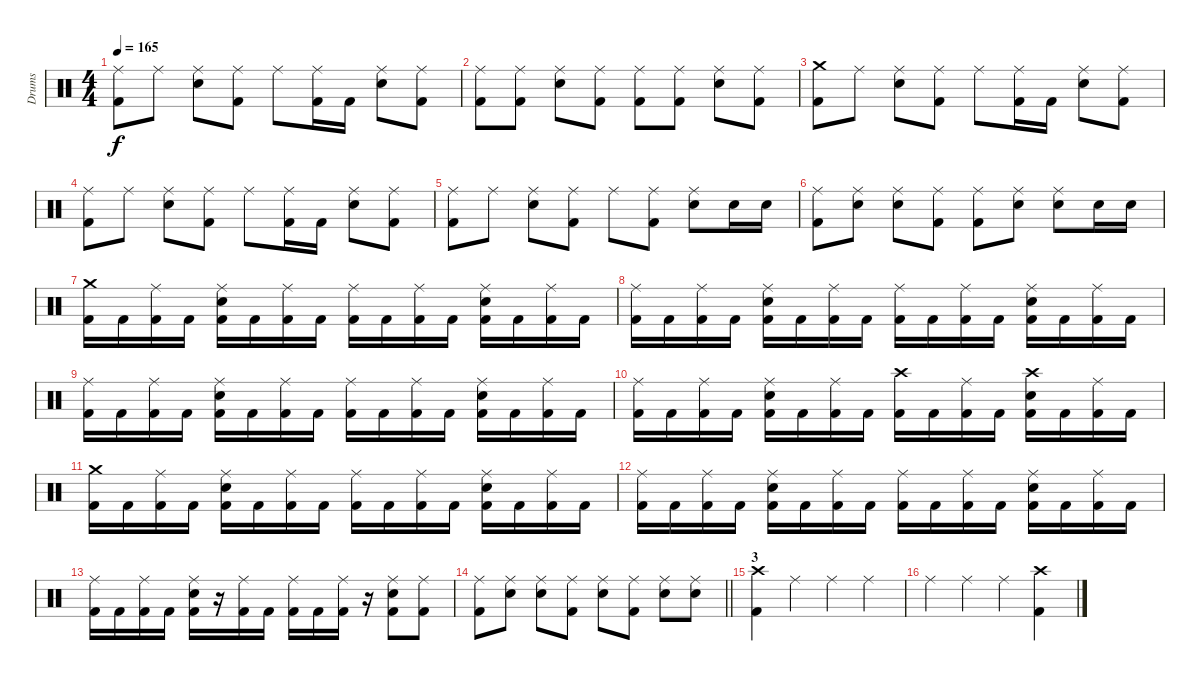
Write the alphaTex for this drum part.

\track ("Drums" "Drums") {instrument percussion}
\staff {score}
\articulation defaults
\ts (4 4)
\tempo 165
\clef neutral
\ks c
("Ride (middle)" "Kick (hit) 2").8{dy f} "Ride (middle)".8 ("Ride (middle)" "Electric Snare (hit)").8 ("Ride (middle)" "Kick (hit) 2").8 "Ride (middle)".8 ("Ride (middle)" "Kick (hit) 2").16 "Kick (hit) 2".16 ("Ride (middle)" "Electric Snare (hit)").8 ("Ride (middle)" "Kick (hit) 2").8 |
("Ride (middle)" "Kick (hit) 2").8 ("Ride (middle)" "Kick (hit) 2").8 ("Ride (middle)" "Electric Snare (hit)").8 ("Ride (middle)" "Kick (hit) 2").8 ("Ride (middle)" "Kick (hit) 2").8 ("Ride (middle)" "Kick (hit) 2").8 ("Ride (middle)" "Electric Snare (hit)").8 ("Ride (middle)" "Kick (hit) 2").8 |
("Crash medium (hit)" "Kick (hit) 2").8 "Ride (middle)".8 ("Ride (middle)" "Electric Snare (hit)").8 ("Ride (middle)" "Kick (hit) 2").8 "Ride (middle)".8 ("Ride (middle)" "Kick (hit) 2").16 "Kick (hit) 2".16 ("Ride (middle)" "Electric Snare (hit)").8 ("Ride (middle)" "Kick (hit) 2").8 |
("Ride (middle)" "Kick (hit) 2").8 "Ride (middle)".8 ("Ride (middle)" "Electric Snare (hit)").8 ("Ride (middle)" "Kick (hit) 2").8 "Ride (middle)".8 ("Ride (middle)" "Kick (hit) 2").16 "Kick (hit) 2".16 ("Ride (middle)" "Electric Snare (hit)").8 ("Ride (middle)" "Kick (hit) 2").8 |
("Ride (middle)" "Kick (hit) 2").8 "Ride (middle)".8 ("Ride (middle)" "Electric Snare (hit)").8 ("Ride (middle)" "Kick (hit) 2").8 "Ride (middle)".8 ("Ride (middle)" "Kick (hit) 2").8 ("Ride (middle)" "Electric Snare (hit)").8 "Electric Snare (hit)".16 "Electric Snare (hit)".16 |
("Ride (middle)" "Kick (hit) 2").8 ("Ride (middle)" "Electric Snare (hit)").8 ("Ride (middle)" "Electric Snare (hit)").8 ("Ride (middle)" "Kick (hit) 2").8 ("Ride (middle)" "Kick (hit) 2").8 ("Ride (middle)" "Electric Snare (hit)").8 ("Ride (middle)" "Electric Snare (hit)").8 "Electric Snare (hit)".16 "Electric Snare (hit)".16 |
("Crash medium (hit)" "Kick (hit) 2").16 "Kick (hit) 2".16 ("Ride (middle)" "Kick (hit) 2").16 "Kick (hit) 2".16 ("Ride (middle)" "Electric Snare (hit)" "Kick (hit) 2").16 "Kick (hit) 2".16 ("Ride (middle)" "Kick (hit) 2").16 "Kick (hit) 2".16 ("Ride (middle)" "Kick (hit) 2").16 "Kick (hit) 2".16 ("Ride (middle)" "Kick (hit) 2").16 "Kick (hit) 2".16 ("Ride (middle)" "Electric Snare (hit)" "Kick (hit) 2").16 "Kick (hit) 2".16 ("Ride (middle)" "Kick (hit) 2").16 "Kick (hit) 2".16 |
("Ride (middle)" "Kick (hit) 2").16 "Kick (hit) 2".16 ("Ride (middle)" "Kick (hit) 2").16 "Kick (hit) 2".16 ("Ride (middle)" "Electric Snare (hit)" "Kick (hit) 2").16 "Kick (hit) 2".16 ("Ride (middle)" "Kick (hit) 2").16 "Kick (hit) 2".16 ("Ride (middle)" "Kick (hit) 2").16 "Kick (hit) 2".16 ("Ride (middle)" "Kick (hit) 2").16 "Kick (hit) 2".16 ("Ride (middle)" "Electric Snare (hit)" "Kick (hit) 2").16 "Kick (hit) 2".16 ("Ride (middle)" "Kick (hit) 2").16 "Kick (hit) 2".16 |
("Ride (middle)" "Kick (hit) 2").16 "Kick (hit) 2".16 ("Ride (middle)" "Kick (hit) 2").16 "Kick (hit) 2".16 ("Ride (middle)" "Electric Snare (hit)" "Kick (hit) 2").16 "Kick (hit) 2".16 ("Ride (middle)" "Kick (hit) 2").16 "Kick (hit) 2".16 ("Ride (middle)" "Kick (hit) 2").16 "Kick (hit) 2".16 ("Ride (middle)" "Kick (hit) 2").16 "Kick (hit) 2".16 ("Ride (middle)" "Electric Snare (hit)" "Kick (hit) 2").16 "Kick (hit) 2".16 ("Ride (middle)" "Kick (hit) 2").16 "Kick (hit) 2".16 |
("Ride (middle)" "Kick (hit) 2").16 "Kick (hit) 2".16 ("Ride (middle)" "Kick (hit) 2").16 "Kick (hit) 2".16 ("Ride (middle)" "Electric Snare (hit)" "Kick (hit) 2").16 "Kick (hit) 2".16 ("Ride (middle)" "Kick (hit) 2").16 "Kick (hit) 2".16 ("Crash high (hit)" "Kick (hit) 2").16 "Kick (hit) 2".16 ("Ride (middle)" "Kick (hit) 2").16 "Kick (hit) 2".16 ("Crash high (hit)" "Electric Snare (hit)" "Kick (hit) 2").16 "Kick (hit) 2".16 ("Ride (middle)" "Kick (hit) 2").16 "Kick (hit) 2".16 |
("Crash medium (hit)" "Kick (hit) 2").16 "Kick (hit) 2".16 ("Ride (middle)" "Kick (hit) 2").16 "Kick (hit) 2".16 ("Ride (middle)" "Electric Snare (hit)" "Kick (hit) 2").16 "Kick (hit) 2".16 ("Ride (middle)" "Kick (hit) 2").16 "Kick (hit) 2".16 ("Ride (middle)" "Kick (hit) 2").16 "Kick (hit) 2".16 ("Ride (middle)" "Kick (hit) 2").16 "Kick (hit) 2".16 ("Ride (middle)" "Electric Snare (hit)" "Kick (hit) 2").16 "Kick (hit) 2".16 ("Ride (middle)" "Kick (hit) 2").16 "Kick (hit) 2".16 |
("Ride (middle)" "Kick (hit) 2").16 "Kick (hit) 2".16 ("Ride (middle)" "Kick (hit) 2").16 "Kick (hit) 2".16 ("Ride (middle)" "Electric Snare (hit)" "Kick (hit) 2").16 "Kick (hit) 2".16 ("Ride (middle)" "Kick (hit) 2").16 "Kick (hit) 2".16 ("Ride (middle)" "Kick (hit) 2").16 "Kick (hit) 2".16 ("Ride (middle)" "Kick (hit) 2").16 "Kick (hit) 2".16 ("Ride (middle)" "Electric Snare (hit)" "Kick (hit) 2").16 "Kick (hit) 2".16 ("Ride (middle)" "Kick (hit) 2").16 "Kick (hit) 2".16 |
("Ride (middle)" "Kick (hit) 2").16 "Kick (hit) 2".16 ("Ride (middle)" "Kick (hit) 2").16 "Kick (hit) 2".16 ("Ride (middle)" "Electric Snare (hit)" "Kick (hit) 2").16 r.16 ("Ride (middle)" "Kick (hit) 2").16 "Kick (hit) 2".16 ("Ride (middle)" "Kick (hit) 2").16 "Kick (hit) 2".16 ("Ride (middle)" "Kick (hit) 2").16 r.16 ("Ride (middle)" "Electric Snare (hit)" "Kick (hit) 2").8 ("Ride (middle)" "Kick (hit) 2").8 |
\barLineRight lightlight
("Ride (middle)" "Kick (hit) 2").8 ("Ride (middle)" "Electric Snare (hit)").8 ("Ride (middle)" "Electric Snare (hit)").8 ("Ride (middle)" "Kick (hit) 2").8 ("Ride (middle)" "Electric Snare (hit)").8 ("Ride (middle)" "Kick (hit) 2").8 ("Ride (middle)" "Electric Snare (hit)").8 ("Ride (middle)" "Electric Snare (hit)").8 |
\section ("" "3")
("Crash high (hit)" "Kick (hit) 2").4 "Ride (middle)".4 "Ride (middle)".4 "Ride (middle)".4 |
"Ride (middle)".4 "Ride (middle)".4 "Ride (middle)".4 ("Crash high (hit)" "Kick (hit) 2").4
